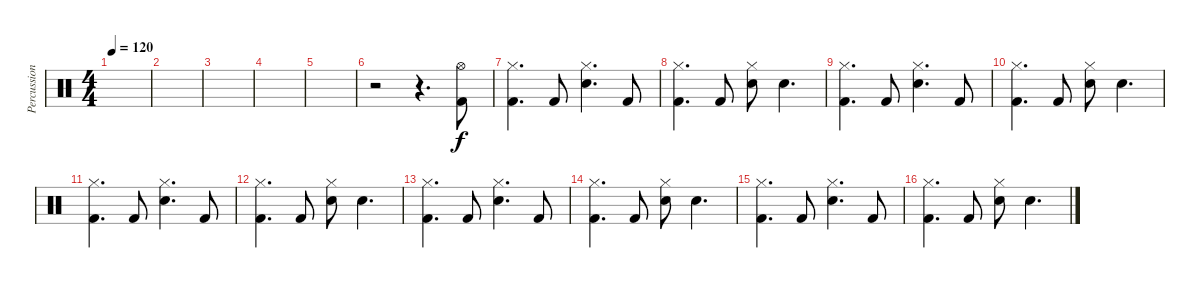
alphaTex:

\track ("Percussions" "Percussion") {instrument percussion}
\staff {score}
\articulation defaults
\ts (4 4)
\tempo 120
\clef neutral
\ks c
|
|
|
|
|
r.2 r.4{d} ("Hi-Hat (open)" "Kick (hit) 2").8 |
("Hi-Hat (closed)" "Kick (hit) 2").4{d} "Kick (hit) 2".8 ("Hi-Hat (closed)" "Snare (hit) 2").4{d} "Kick (hit) 2".8 |
("Hi-Hat (closed)" "Kick (hit) 2").4{d} "Kick (hit) 2".8 ("Hi-Hat (closed)" "Snare (hit) 2").8 "Snare (hit) 2".4{d} |
("Hi-Hat (closed)" "Kick (hit) 2").4{d} "Kick (hit) 2".8 ("Hi-Hat (closed)" "Snare (hit) 2").4{d} "Kick (hit) 2".8 |
("Hi-Hat (closed)" "Kick (hit) 2").4{d} "Kick (hit) 2".8 ("Hi-Hat (closed)" "Snare (hit) 2").8 "Snare (hit) 2".4{d} |
("Hi-Hat (closed)" "Kick (hit) 2").4{d} "Kick (hit) 2".8 ("Hi-Hat (closed)" "Snare (hit) 2").4{d} "Kick (hit) 2".8 |
("Hi-Hat (closed)" "Kick (hit) 2").4{d} "Kick (hit) 2".8 ("Hi-Hat (closed)" "Snare (hit) 2").8 "Snare (hit) 2".4{d} |
("Hi-Hat (closed)" "Kick (hit) 2").4{d} "Kick (hit) 2".8 ("Hi-Hat (closed)" "Snare (hit) 2").4{d} "Kick (hit) 2".8 |
("Hi-Hat (closed)" "Kick (hit) 2").4{d} "Kick (hit) 2".8 ("Hi-Hat (closed)" "Snare (hit) 2").8 "Snare (hit) 2".4{d} |
("Hi-Hat (closed)" "Kick (hit) 2").4{d} "Kick (hit) 2".8 ("Hi-Hat (closed)" "Snare (hit) 2").4{d} "Kick (hit) 2".8 |
("Hi-Hat (closed)" "Kick (hit) 2").4{d} "Kick (hit) 2".8 ("Hi-Hat (closed)" "Snare (hit) 2").8 "Snare (hit) 2".4{d}
